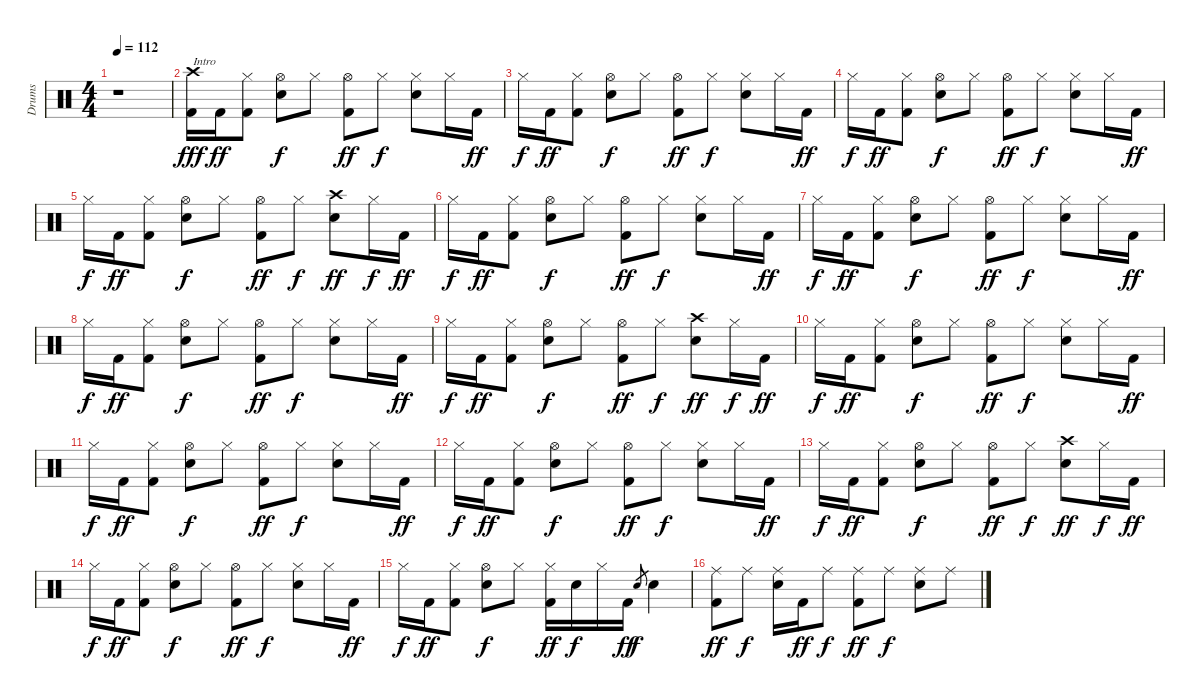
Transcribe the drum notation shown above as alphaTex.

\track ("Drums" "Drums") {instrument percussion}
\staff {score}
\articulation defaults
\ts (4 4)
\tempo 112
\clef neutral
\ks c
r.1{dy fff} |
("Crash high (hit)" "Kick (hit) 2").16{txt "Intro"} "Kick (hit) 2".16{dy ff} ("Hi-Hat (closed)" "Kick (hit) 2").8 ("Hi-Hat (open)" "Snare (hit) 2").8{dy f} "Hi-Hat (closed)".8 ("Hi-Hat (open)" "Kick (hit) 2").8{dy ff} "Hi-Hat (closed)".8{dy f} ("Hi-Hat (closed)" "Snare (hit) 2").8 "Hi-Hat (closed)".16 "Kick (hit) 2".16{dy ff} |
"Hi-Hat (closed)".16{dy f} "Kick (hit) 2".16{dy ff} ("Hi-Hat (closed)" "Kick (hit) 2").8 ("Hi-Hat (open)" "Snare (hit) 2").8{dy f} "Hi-Hat (closed)".8 ("Hi-Hat (open)" "Kick (hit) 2").8{dy ff} "Hi-Hat (closed)".8{dy f} ("Hi-Hat (closed)" "Snare (hit) 2").8 "Hi-Hat (closed)".16 "Kick (hit) 2".16{dy ff} |
"Hi-Hat (closed)".16{dy f} "Kick (hit) 2".16{dy ff} ("Hi-Hat (closed)" "Kick (hit) 2").8 ("Hi-Hat (open)" "Snare (hit) 2").8{dy f} "Hi-Hat (closed)".8 ("Hi-Hat (open)" "Kick (hit) 2").8{dy ff} "Hi-Hat (closed)".8{dy f} ("Hi-Hat (closed)" "Snare (hit) 2").8 "Hi-Hat (closed)".16 "Kick (hit) 2".16{dy ff} |
"Hi-Hat (closed)".16{dy f} "Kick (hit) 2".16{dy ff} ("Hi-Hat (closed)" "Kick (hit) 2").8 ("Hi-Hat (open)" "Snare (hit) 2").8{dy f} "Hi-Hat (closed)".8 ("Hi-Hat (open)" "Kick (hit) 2").8{dy ff} "Hi-Hat (closed)".8{dy f} ("Crash high (hit)" "Snare (hit) 2").8{dy ff} "Hi-Hat (closed)".16{dy f} "Kick (hit) 2".16{dy ff} |
"Hi-Hat (closed)".16{dy f} "Kick (hit) 2".16{dy ff} ("Hi-Hat (closed)" "Kick (hit) 2").8 ("Hi-Hat (open)" "Snare (hit) 2").8{dy f} "Hi-Hat (closed)".8 ("Hi-Hat (open)" "Kick (hit) 2").8{dy ff} "Hi-Hat (closed)".8{dy f} ("Hi-Hat (closed)" "Snare (hit) 2").8 "Hi-Hat (closed)".16 "Kick (hit) 2".16{dy ff} |
"Hi-Hat (closed)".16{dy f} "Kick (hit) 2".16{dy ff} ("Hi-Hat (closed)" "Kick (hit) 2").8 ("Hi-Hat (open)" "Snare (hit) 2").8{dy f} "Hi-Hat (closed)".8 ("Hi-Hat (open)" "Kick (hit) 2").8{dy ff} "Hi-Hat (closed)".8{dy f} ("Hi-Hat (closed)" "Snare (hit) 2").8 "Hi-Hat (closed)".16 "Kick (hit) 2".16{dy ff} |
"Hi-Hat (closed)".16{dy f} "Kick (hit) 2".16{dy ff} ("Hi-Hat (closed)" "Kick (hit) 2").8 ("Hi-Hat (open)" "Snare (hit) 2").8{dy f} "Hi-Hat (closed)".8 ("Hi-Hat (open)" "Kick (hit) 2").8{dy ff} "Hi-Hat (closed)".8{dy f} ("Hi-Hat (closed)" "Snare (hit) 2").8 "Hi-Hat (closed)".16 "Kick (hit) 2".16{dy ff} |
"Hi-Hat (closed)".16{dy f} "Kick (hit) 2".16{dy ff} ("Hi-Hat (closed)" "Kick (hit) 2").8 ("Hi-Hat (open)" "Snare (hit) 2").8{dy f} "Hi-Hat (closed)".8 ("Hi-Hat (open)" "Kick (hit) 2").8{dy ff} "Hi-Hat (closed)".8{dy f} ("Crash high (hit)" "Snare (hit) 2").8{dy ff} "Hi-Hat (closed)".16{dy f} "Kick (hit) 2".16{dy ff} |
"Hi-Hat (closed)".16{dy f} "Kick (hit) 2".16{dy ff} ("Hi-Hat (closed)" "Kick (hit) 2").8 ("Hi-Hat (open)" "Snare (hit) 2").8{dy f} "Hi-Hat (closed)".8 ("Hi-Hat (open)" "Kick (hit) 2").8{dy ff} "Hi-Hat (closed)".8{dy f} ("Hi-Hat (closed)" "Snare (hit) 2").8 "Hi-Hat (closed)".16 "Kick (hit) 2".16{dy ff} |
"Hi-Hat (closed)".16{dy f} "Kick (hit) 2".16{dy ff} ("Hi-Hat (closed)" "Kick (hit) 2").8 ("Hi-Hat (open)" "Snare (hit) 2").8{dy f} "Hi-Hat (closed)".8 ("Hi-Hat (open)" "Kick (hit) 2").8{dy ff} "Hi-Hat (closed)".8{dy f} ("Hi-Hat (closed)" "Snare (hit) 2").8 "Hi-Hat (closed)".16 "Kick (hit) 2".16{dy ff} |
"Hi-Hat (closed)".16{dy f} "Kick (hit) 2".16{dy ff} ("Hi-Hat (closed)" "Kick (hit) 2").8 ("Hi-Hat (open)" "Snare (hit) 2").8{dy f} "Hi-Hat (closed)".8 ("Hi-Hat (open)" "Kick (hit) 2").8{dy ff} "Hi-Hat (closed)".8{dy f} ("Hi-Hat (closed)" "Snare (hit) 2").8 "Hi-Hat (closed)".16 "Kick (hit) 2".16{dy ff} |
"Hi-Hat (closed)".16{dy f} "Kick (hit) 2".16{dy ff} ("Hi-Hat (closed)" "Kick (hit) 2").8 ("Hi-Hat (open)" "Snare (hit) 2").8{dy f} "Hi-Hat (closed)".8 ("Hi-Hat (open)" "Kick (hit) 2").8{dy ff} "Hi-Hat (closed)".8{dy f} ("Crash high (hit)" "Snare (hit) 2").8{dy ff} "Hi-Hat (closed)".16{dy f} "Kick (hit) 2".16{dy ff} |
"Hi-Hat (closed)".16{dy f} "Kick (hit) 2".16{dy ff} ("Hi-Hat (closed)" "Kick (hit) 2").8 ("Hi-Hat (open)" "Snare (hit) 2").8{dy f} "Hi-Hat (closed)".8 ("Hi-Hat (open)" "Kick (hit) 2").8{dy ff} "Hi-Hat (closed)".8{dy f} ("Hi-Hat (closed)" "Snare (hit) 2").8 "Hi-Hat (closed)".16 "Kick (hit) 2".16{dy ff} |
"Hi-Hat (closed)".16{dy f} "Kick (hit) 2".16{dy ff} ("Hi-Hat (closed)" "Kick (hit) 2").8 ("Hi-Hat (open)" "Snare (hit) 2").8{dy f} "Hi-Hat (closed)".8 ("Hi-Hat (closed)" "Kick (hit) 2").16{dy ff} "Snare (hit) 2".16{dy f} "Hi-Hat (closed)".16 "Kick (hit) 2".16{dy ff} "Snare (hit) 2".8{gr dy f} "Snare (hit) 2".4 |
("Ride (middle)" "Kick (hit) 2").8{dy ff} "Ride (middle)".8{dy f} ("Ride (middle)" "Snare (hit) 2").16 "Kick (hit) 2".16{dy ff} "Ride (middle)".8{dy f} ("Ride (middle)" "Kick (hit) 2").8{dy ff} "Ride (middle)".8{dy f} ("Ride (middle)" "Snare (hit) 2").8 "Ride (middle)".8
